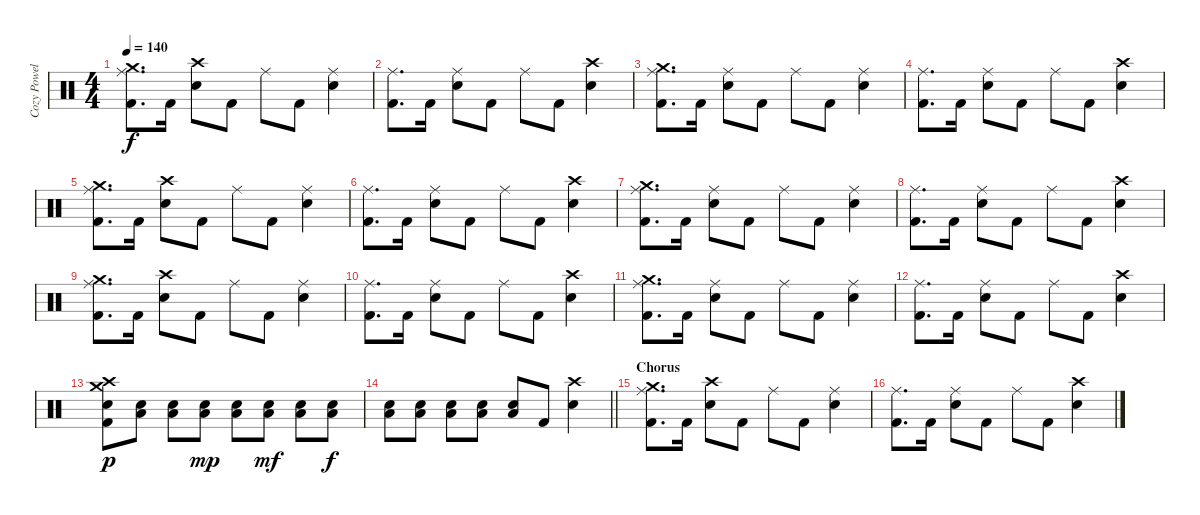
\track ("Cozy Powell" "Cozy Powel") {instrument percussion}
\staff {score}
\articulation defaults
\ts (4 4)
\tempo 140
\clef neutral
\ks c
("Crash medium (hit)" "Ride (middle)" "Kick (hit) 2").8{d dy f} "Kick (hit) 2".16 ("Crash high (hit)" "Snare (hit) 2").8 "Kick (hit) 2".8 "Ride (middle)".8 "Kick (hit) 2".8 ("Ride (middle)" "Snare (hit) 2").4 |
("Ride (middle)" "Kick (hit) 2").8{d} "Kick (hit) 2".16 ("Ride (middle)" "Snare (hit) 2").8 "Kick (hit) 2".8 "Ride (middle)".8 "Kick (hit) 2".8 ("Crash high (hit)" "Snare (hit) 2").4 |
("Crash medium (hit)" "Ride (middle)" "Kick (hit) 2").8{d} "Kick (hit) 2".16 ("Ride (middle)" "Snare (hit) 2").8 "Kick (hit) 2".8 "Ride (middle)".8 "Kick (hit) 2".8 ("Ride (middle)" "Snare (hit) 2").4 |
("Ride (middle)" "Kick (hit) 2").8{d} "Kick (hit) 2".16 ("Ride (middle)" "Snare (hit) 2").8 "Kick (hit) 2".8 "Ride (middle)".8 "Kick (hit) 2".8 ("Crash high (hit)" "Snare (hit) 2").4 |
("Crash medium (hit)" "Ride (middle)" "Kick (hit) 2").8{d} "Kick (hit) 2".16 ("Crash high (hit)" "Snare (hit) 2").8 "Kick (hit) 2".8 "Ride (middle)".8 "Kick (hit) 2".8 ("Ride (middle)" "Snare (hit) 2").4 |
("Ride (middle)" "Kick (hit) 2").8{d} "Kick (hit) 2".16 ("Ride (middle)" "Snare (hit) 2").8 "Kick (hit) 2".8 "Ride (middle)".8 "Kick (hit) 2".8 ("Crash high (hit)" "Snare (hit) 2").4 |
("Crash medium (hit)" "Ride (middle)" "Kick (hit) 2").8{d} "Kick (hit) 2".16 ("Ride (middle)" "Snare (hit) 2").8 "Kick (hit) 2".8 "Ride (middle)".8 "Kick (hit) 2".8 ("Ride (middle)" "Snare (hit) 2").4 |
("Ride (middle)" "Kick (hit) 2").8{d} "Kick (hit) 2".16 ("Ride (middle)" "Snare (hit) 2").8 "Kick (hit) 2".8 "Ride (middle)".8 "Kick (hit) 2".8 ("Crash high (hit)" "Snare (hit) 2").4 |
("Crash medium (hit)" "Ride (middle)" "Kick (hit) 2").8{d} "Kick (hit) 2".16 ("Crash high (hit)" "Snare (hit) 2").8 "Kick (hit) 2".8 "Ride (middle)".8 "Kick (hit) 2".8 ("Ride (middle)" "Snare (hit) 2").4 |
("Ride (middle)" "Kick (hit) 2").8{d} "Kick (hit) 2".16 ("Ride (middle)" "Snare (hit) 2").8 "Kick (hit) 2".8 "Ride (middle)".8 "Kick (hit) 2".8 ("Crash high (hit)" "Snare (hit) 2").4 |
("Crash medium (hit)" "Ride (middle)" "Kick (hit) 2").8{d} "Kick (hit) 2".16 ("Ride (middle)" "Snare (hit) 2").8 "Kick (hit) 2".8 "Ride (middle)".8 "Kick (hit) 2".8 ("Ride (middle)" "Snare (hit) 2").4 |
("Ride (middle)" "Kick (hit) 2").8{d} "Kick (hit) 2".16 ("Ride (middle)" "Snare (hit) 2").8 "Kick (hit) 2".8 "Ride (middle)".8 "Kick (hit) 2".8 ("Crash high (hit)" "Snare (hit) 2").4 |
("Crash medium (hit)" "Crash high (hit)" "Snare (hit) 2" "Kick (hit) 2").8{dy p} ("Snare (hit) 2" "Low Tom (hit)").8 ("Snare (hit) 2" "Low Tom (hit)").8 ("Snare (hit) 2" "Low Tom (hit)").8{dy mp} ("Snare (hit) 2" "Low Tom (hit)").8 ("Snare (hit) 2" "Low Tom (hit)").8{dy mf} ("Snare (hit) 2" "Low Tom (hit)").8 ("Snare (hit) 2" "Low Tom (hit)").8{dy f} |
\barLineRight lightlight
("Snare (hit) 2" "Low Tom (hit)").8 ("Snare (hit) 2" "Low Tom (hit)").8 ("Snare (hit) 2" "Low Tom (hit)").8 ("Snare (hit) 2" "Low Tom (hit)").8 ("Snare (hit) 2" "Low Tom (hit)").8 "Kick (hit) 2".8 ("Crash high (hit)" "Snare (hit) 2").4 |
\section ("" "Chorus")
("Crash medium (hit)" "Ride (middle)" "Kick (hit) 2").8{d} "Kick (hit) 2".16 ("Crash high (hit)" "Snare (hit) 2").8 "Kick (hit) 2".8 "Ride (middle)".8 "Kick (hit) 2".8 ("Ride (middle)" "Snare (hit) 2").4 |
("Ride (middle)" "Kick (hit) 2").8{d} "Kick (hit) 2".16 ("Ride (middle)" "Snare (hit) 2").8 "Kick (hit) 2".8 "Ride (middle)".8 "Kick (hit) 2".8 ("Crash high (hit)" "Snare (hit) 2").4
